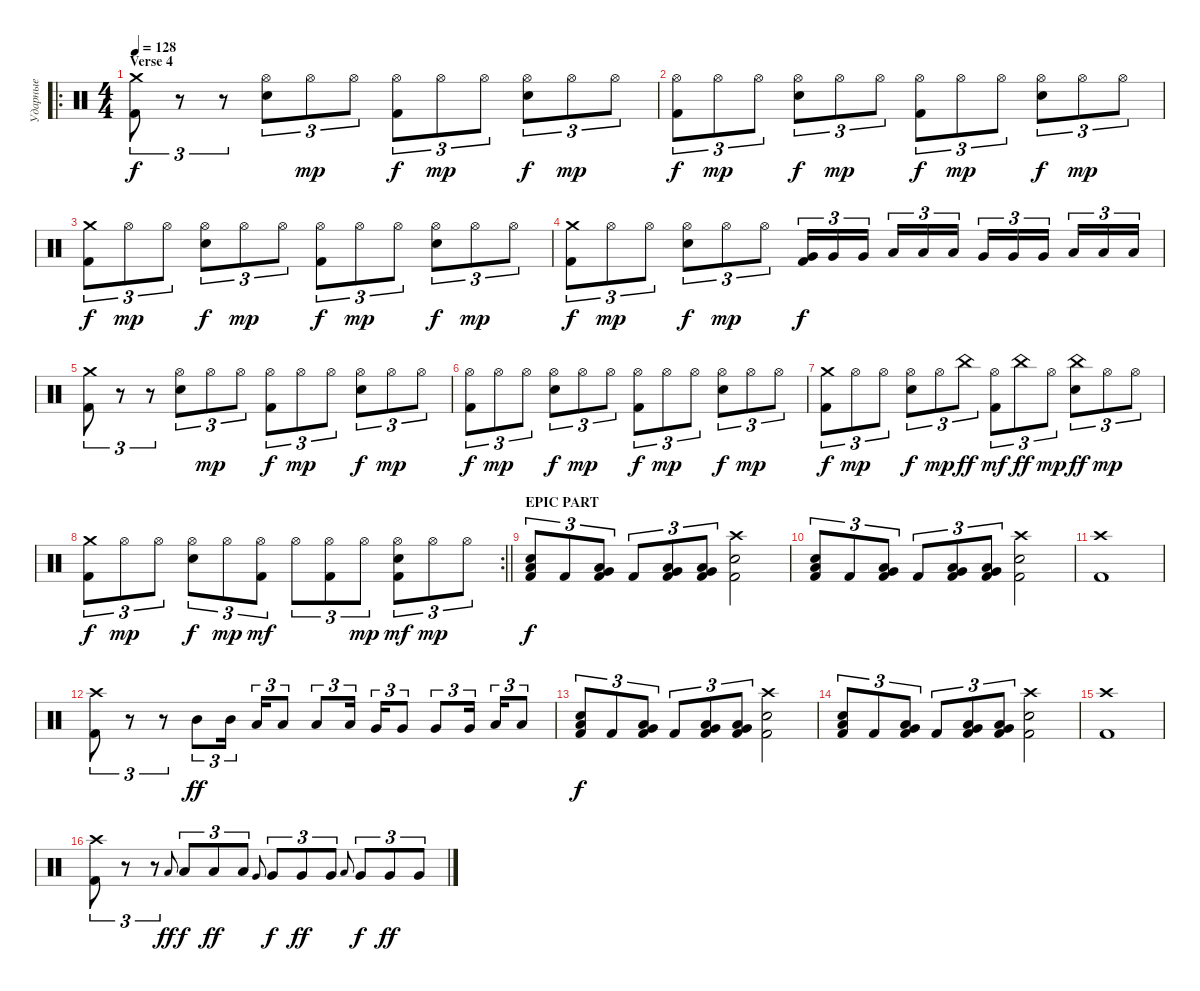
\track ("Ударные" "Ударные") {instrument percussion}
\staff {score}
\articulation defaults
\ro
\ts (4 4)
\section ("" "Verse 4")
\tempo 128
\clef neutral
\ks c
("Crash medium (hit)" "Kick (hit) 2").8{tu (3 2) dy f} r.8{tu (3 2)} r.8{tu (3 2)} ("Hi-Hat (open)" "Electric Snare (hit)").8{tu (3 2)} "Hi-Hat (open)".8{tu (3 2) dy mp} "Hi-Hat (open)".8{tu (3 2)} ("Hi-Hat (open)" "Kick (hit) 2").8{tu (3 2) dy f} "Hi-Hat (open)".8{tu (3 2) dy mp} "Hi-Hat (open)".8{tu (3 2)} ("Hi-Hat (open)" "Electric Snare (hit)").8{tu (3 2) dy f} "Hi-Hat (open)".8{tu (3 2) dy mp} "Hi-Hat (open)".8{tu (3 2)} |
("Hi-Hat (open)" "Kick (hit) 2").8{tu (3 2) dy f} "Hi-Hat (open)".8{tu (3 2) dy mp} "Hi-Hat (open)".8{tu (3 2)} ("Hi-Hat (open)" "Electric Snare (hit)").8{tu (3 2) dy f} "Hi-Hat (open)".8{tu (3 2) dy mp} "Hi-Hat (open)".8{tu (3 2)} ("Hi-Hat (open)" "Kick (hit) 2").8{tu (3 2) dy f} "Hi-Hat (open)".8{tu (3 2) dy mp} "Hi-Hat (open)".8{tu (3 2)} ("Hi-Hat (open)" "Electric Snare (hit)").8{tu (3 2) dy f} "Hi-Hat (open)".8{tu (3 2) dy mp} "Hi-Hat (open)".8{tu (3 2)} |
("Crash medium (hit)" "Kick (hit) 2").8{tu (3 2) dy f} "Hi-Hat (open)".8{tu (3 2) dy mp} "Hi-Hat (open)".8{tu (3 2)} ("Hi-Hat (open)" "Electric Snare (hit)").8{tu (3 2) dy f} "Hi-Hat (open)".8{tu (3 2) dy mp} "Hi-Hat (open)".8{tu (3 2)} ("Hi-Hat (open)" "Kick (hit) 2").8{tu (3 2) dy f} "Hi-Hat (open)".8{tu (3 2) dy mp} "Hi-Hat (open)".8{tu (3 2)} ("Hi-Hat (open)" "Electric Snare (hit)").8{tu (3 2) dy f} "Hi-Hat (open)".8{tu (3 2) dy mp} "Hi-Hat (open)".8{tu (3 2)} |
("Crash medium (hit)" "Kick (hit) 2").8{tu (3 2) dy f} "Hi-Hat (open)".8{tu (3 2) dy mp} "Hi-Hat (open)".8{tu (3 2)} ("Hi-Hat (open)" "Electric Snare (hit)").8{tu (3 2) dy f} "Hi-Hat (open)".8{tu (3 2) dy mp} "Hi-Hat (open)".8{tu (3 2)} ("Very Low Tom (hit)" "Kick (hit) 2").16{tu (3 2) dy f} "Very Low Tom (hit)".16{tu (3 2)} "Very Low Tom (hit)".16{tu (3 2) beam splitsecondary} "Low Tom (hit)".16{tu (3 2)} "Low Tom (hit)".16{tu (3 2)} "Low Tom (hit)".16{tu (3 2)} "Very Low Tom (hit)".16{tu (3 2)} "Very Low Tom (hit)".16{tu (3 2)} "Very Low Tom (hit)".16{tu (3 2) beam splitsecondary} "Low Floor Tom (hit)".16{tu (3 2)} "Low Floor Tom (hit)".16{tu (3 2)} "Low Floor Tom (hit)".16{tu (3 2)} |
("Crash medium (hit)" "Kick (hit) 2").8{tu (3 2)} r.8{tu (3 2)} r.8{tu (3 2)} ("Hi-Hat (open)" "Electric Snare (hit)").8{tu (3 2)} "Hi-Hat (open)".8{tu (3 2) dy mp} "Hi-Hat (open)".8{tu (3 2)} ("Hi-Hat (open)" "Kick (hit) 2").8{tu (3 2) dy f} "Hi-Hat (open)".8{tu (3 2) dy mp} "Hi-Hat (open)".8{tu (3 2)} ("Hi-Hat (open)" "Electric Snare (hit)").8{tu (3 2) dy f} "Hi-Hat (open)".8{tu (3 2) dy mp} "Hi-Hat (open)".8{tu (3 2)} |
("Hi-Hat (open)" "Kick (hit) 2").8{tu (3 2) dy f} "Hi-Hat (open)".8{tu (3 2) dy mp} "Hi-Hat (open)".8{tu (3 2)} ("Hi-Hat (open)" "Electric Snare (hit)").8{tu (3 2) dy f} "Hi-Hat (open)".8{tu (3 2) dy mp} "Hi-Hat (open)".8{tu (3 2)} ("Hi-Hat (open)" "Kick (hit) 2").8{tu (3 2) dy f} "Hi-Hat (open)".8{tu (3 2) dy mp} "Hi-Hat (open)".8{tu (3 2)} ("Hi-Hat (open)" "Electric Snare (hit)").8{tu (3 2) dy f} "Hi-Hat (open)".8{tu (3 2) dy mp} "Hi-Hat (open)".8{tu (3 2)} |
("Crash medium (hit)" "Kick (hit) 2").8{tu (3 2) dy f} "Hi-Hat (open)".8{tu (3 2) dy mp} "Hi-Hat (open)".8{tu (3 2)} ("Hi-Hat (open)" "Electric Snare (hit)").8{tu (3 2) dy f} "Hi-Hat (open)".8{tu (3 2) dy mp} "China (hit)".8{tu (3 2) dy ff} ("Hi-Hat (open)" "Kick (hit) 2").8{tu (3 2) dy mf} "China (hit)".8{tu (3 2) dy ff} "Hi-Hat (open)".8{tu (3 2) dy mp} ("China (hit)" "Electric Snare (hit)").8{tu (3 2) dy ff} "Hi-Hat (open)".8{tu (3 2) dy mp} "Hi-Hat (open)".8{tu (3 2)} |
\rc 2
\barLineRight lightlight
("Crash medium (hit)" "Kick (hit) 2").8{tu (3 2) dy f} "Hi-Hat (open)".8{tu (3 2) dy mp} "Hi-Hat (open)".8{tu (3 2)} ("Hi-Hat (open)" "Electric Snare (hit)").8{tu (3 2) dy f} "Hi-Hat (open)".8{tu (3 2) dy mp} ("Hi-Hat (open)" "Kick (hit) 2").8{tu (3 2) dy mf} "Hi-Hat (open)".8{tu (3 2)} ("Hi-Hat (open)" "Kick (hit) 2").8{tu (3 2)} "Hi-Hat (open)".8{tu (3 2) dy mp} ("Hi-Hat (open)" "Electric Snare (hit)" "Kick (hit) 2").8{tu (3 2) dy mf} "Hi-Hat (open)".8{tu (3 2) dy mp} "Hi-Hat (open)".8{tu (3 2)} |
\section ("" "EPIC PART")
("Low Tom (hit)" "Electric Snare (hit)" "Kick (hit) 2").8{tu (3 2) dy f} "Kick (hit) 2".8{tu (3 2)} ("Low Tom (hit)" "Very Low Tom (hit)" "Kick (hit) 2").8{tu (3 2)} "Kick (hit) 2".8{tu (3 2)} ("Very Low Tom (hit)" "Low Floor Tom (hit)" "Kick (hit) 2").8{tu (3 2)} ("Very Low Tom (hit)" "Low Floor Tom (hit)" "Kick (hit) 2").8{tu (3 2)} ("Crash high (hit)" "Electric Snare (hit)" "Kick (hit) 2").2 |
("Low Tom (hit)" "Electric Snare (hit)" "Kick (hit) 2").8{tu (3 2)} "Kick (hit) 2".8{tu (3 2)} ("Low Tom (hit)" "Very Low Tom (hit)" "Kick (hit) 2").8{tu (3 2)} "Kick (hit) 2".8{tu (3 2)} ("Very Low Tom (hit)" "Low Floor Tom (hit)" "Kick (hit) 2").8{tu (3 2)} ("Very Low Tom (hit)" "Low Floor Tom (hit)" "Kick (hit) 2").8{tu (3 2)} ("Crash high (hit)" "Electric Snare (hit)" "Kick (hit) 2").2 |
("Crash high (hit)" "Kick (hit) 2").1 |
("Crash high (hit)" "Kick (hit) 2").8{tu (3 2)} r.8{tu (3 2)} r.8{tu (3 2)} "Mid Tom (hit)".8{tu (3 2) dy ff} "Mid Tom (hit)".16{tu (3 2) beam splitsecondary} "Low Tom (hit)".16{tu (3 2)} "Low Tom (hit)".8{tu (3 2)} "Low Tom (hit)".8{tu (3 2)} "Low Tom (hit)".16{tu (3 2) beam splitsecondary} "Very Low Tom (hit)".16{tu (3 2)} "Very Low Tom (hit)".8{tu (3 2)} "Very Low Tom (hit)".8{tu (3 2)} "Very Low Tom (hit)".16{tu (3 2) beam splitsecondary} "Low Floor Tom (hit)".16{tu (3 2)} "Low Floor Tom (hit)".8{tu (3 2)} |
("Low Tom (hit)" "Electric Snare (hit)" "Kick (hit) 2").8{tu (3 2) dy f} "Kick (hit) 2".8{tu (3 2)} ("Low Tom (hit)" "Very Low Tom (hit)" "Kick (hit) 2").8{tu (3 2)} "Kick (hit) 2".8{tu (3 2)} ("Very Low Tom (hit)" "Low Floor Tom (hit)" "Kick (hit) 2").8{tu (3 2)} ("Very Low Tom (hit)" "Low Floor Tom (hit)" "Kick (hit) 2").8{tu (3 2)} ("Crash high (hit)" "Electric Snare (hit)" "Kick (hit) 2").2 |
("Low Tom (hit)" "Electric Snare (hit)" "Kick (hit) 2").8{tu (3 2)} "Kick (hit) 2".8{tu (3 2)} ("Low Tom (hit)" "Very Low Tom (hit)" "Kick (hit) 2").8{tu (3 2)} "Kick (hit) 2".8{tu (3 2)} ("Very Low Tom (hit)" "Low Floor Tom (hit)" "Kick (hit) 2").8{tu (3 2)} ("Very Low Tom (hit)" "Low Floor Tom (hit)" "Kick (hit) 2").8{tu (3 2)} ("Crash high (hit)" "Electric Snare (hit)" "Kick (hit) 2").2 |
("Crash high (hit)" "Kick (hit) 2").1 |
("Crash high (hit)" "Kick (hit) 2").8{tu (3 2)} r.8{tu (3 2)} r.8{tu (3 2)} "Low Tom (hit)".8{gr onbeat dy ff} "Low Tom (hit)".8{tu (3 2) dy f} "Low Tom (hit)".8{tu (3 2) dy ff} "Low Tom (hit)".8{tu (3 2)} "Very Low Tom (hit)".8{gr onbeat} "Very Low Tom (hit)".8{tu (3 2) dy f} "Very Low Tom (hit)".8{tu (3 2) dy ff} "Very Low Tom (hit)".8{tu (3 2)} "Low Floor Tom (hit)".8{gr onbeat} "Very Low Tom (hit)".8{tu (3 2) dy f} "Very Low Tom (hit)".8{tu (3 2) dy ff} "Very Low Tom (hit)".8{tu (3 2)}
